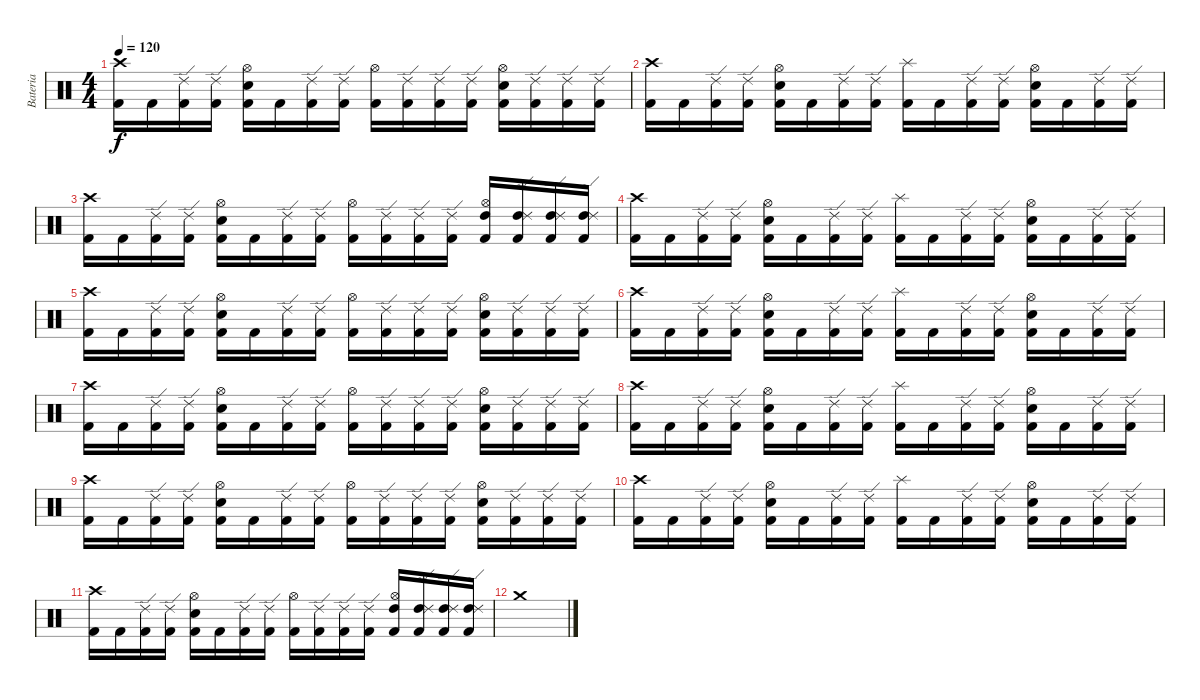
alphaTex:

\track ("Bateria" "Bateria") {instrument percussion}
\staff {score}
\articulation defaults
\ts (4 4)
\tempo 120
\clef neutral
\ks c
("Kick (hit) 2" "Crash high (hit)").16{dy f} "Kick (hit) 2".16 ("Kick (hit) 2" "Ride (edge) 2").16 ("Kick (hit) 2" "Ride (edge) 2").16 ("Kick (hit) 2" "Snare (hit) 2" "Hi-Hat (open)").16 "Kick (hit) 2".16 ("Kick (hit) 2" "Ride (edge) 2").16 ("Kick (hit) 2" "Ride (edge) 2").16 ("Kick (hit) 2" "Hi-Hat (open)").16 ("Kick (hit) 2" "Ride (edge) 2").16 ("Kick (hit) 2" "Ride (edge) 2").16 ("Kick (hit) 2" "Ride (edge) 2").16 ("Kick (hit) 2" "Snare (hit) 2" "Hi-Hat (open)").16 ("Kick (hit) 2" "Ride (edge) 2").16 ("Kick (hit) 2" "Ride (edge) 2").16 ("Kick (hit) 2" "Ride (edge) 2").16 |
("Kick (hit) 2" "Crash high (hit)").16 "Kick (hit) 2".16 ("Kick (hit) 2" "Ride (edge) 2").16 ("Kick (hit) 2" "Ride (edge) 2").16 ("Kick (hit) 2" "Snare (hit) 2" "Hi-Hat (open)").16 "Kick (hit) 2".16 ("Kick (hit) 2" "Ride (edge) 2").16 ("Kick (hit) 2" "Ride (edge) 2").16 ("Kick (hit) 2" "Splash (hit)").16 "Kick (hit) 2".16 ("Kick (hit) 2" "Ride (edge) 2").16 ("Kick (hit) 2" "Ride (edge) 2").16 ("Kick (hit) 2" "Snare (hit) 2" "Hi-Hat (open)").16 "Kick (hit) 2".16 ("Kick (hit) 2" "Ride (edge) 2").16 ("Kick (hit) 2" "Ride (edge) 2").16 |
("Kick (hit) 2" "Crash high (hit)").16 "Kick (hit) 2".16 ("Kick (hit) 2" "Ride (edge) 2").16 ("Kick (hit) 2" "Ride (edge) 2").16 ("Kick (hit) 2" "Snare (hit) 2" "Hi-Hat (open)").16 "Kick (hit) 2".16 ("Kick (hit) 2" "Ride (edge) 2").16 ("Kick (hit) 2" "Ride (edge) 2").16 ("Kick (hit) 2" "Hi-Hat (open)").16 ("Kick (hit) 2" "Ride (edge) 2").16 ("Kick (hit) 2" "Ride (edge) 2").16 ("Kick (hit) 2" "Ride (edge) 2").16 ("Kick (hit) 2" "High Tom (hit)" "Hi-Hat (open)").16 ("Kick (hit) 2" "High Tom (hit)" "Ride (edge) 2").16 ("Kick (hit) 2" "High Tom (hit)" "Ride (edge) 2").16 ("Kick (hit) 2" "High Tom (hit)" "Ride (edge) 2").16 |
("Kick (hit) 2" "Crash high (hit)").16 "Kick (hit) 2".16 ("Kick (hit) 2" "Ride (edge) 2").16 ("Kick (hit) 2" "Ride (edge) 2").16 ("Kick (hit) 2" "Snare (hit) 2" "Hi-Hat (open)").16 "Kick (hit) 2".16 ("Kick (hit) 2" "Ride (edge) 2").16 ("Kick (hit) 2" "Ride (edge) 2").16 ("Kick (hit) 2" "Splash (hit)").16 "Kick (hit) 2".16 ("Kick (hit) 2" "Ride (edge) 2").16 ("Kick (hit) 2" "Ride (edge) 2").16 ("Kick (hit) 2" "Snare (hit) 2" "Hi-Hat (open)").16 "Kick (hit) 2".16 ("Kick (hit) 2" "Ride (edge) 2").16 ("Kick (hit) 2" "Ride (edge) 2").16 |
("Kick (hit) 2" "Crash high (hit)").16 "Kick (hit) 2".16 ("Kick (hit) 2" "Ride (edge) 2").16 ("Kick (hit) 2" "Ride (edge) 2").16 ("Kick (hit) 2" "Snare (hit) 2" "Hi-Hat (open)").16 "Kick (hit) 2".16 ("Kick (hit) 2" "Ride (edge) 2").16 ("Kick (hit) 2" "Ride (edge) 2").16 ("Kick (hit) 2" "Hi-Hat (open)").16 ("Kick (hit) 2" "Ride (edge) 2").16 ("Kick (hit) 2" "Ride (edge) 2").16 ("Kick (hit) 2" "Ride (edge) 2").16 ("Kick (hit) 2" "Snare (hit) 2" "Hi-Hat (open)").16 ("Kick (hit) 2" "Ride (edge) 2").16 ("Kick (hit) 2" "Ride (edge) 2").16 ("Kick (hit) 2" "Ride (edge) 2").16 |
("Kick (hit) 2" "Crash high (hit)").16 "Kick (hit) 2".16 ("Kick (hit) 2" "Ride (edge) 2").16 ("Kick (hit) 2" "Ride (edge) 2").16 ("Kick (hit) 2" "Snare (hit) 2" "Hi-Hat (open)").16 "Kick (hit) 2".16 ("Kick (hit) 2" "Ride (edge) 2").16 ("Kick (hit) 2" "Ride (edge) 2").16 ("Kick (hit) 2" "Splash (hit)").16 "Kick (hit) 2".16 ("Kick (hit) 2" "Ride (edge) 2").16 ("Kick (hit) 2" "Ride (edge) 2").16 ("Kick (hit) 2" "Snare (hit) 2" "Hi-Hat (open)").16 "Kick (hit) 2".16 ("Kick (hit) 2" "Ride (edge) 2").16 ("Kick (hit) 2" "Ride (edge) 2").16 |
("Kick (hit) 2" "Crash high (hit)").16 "Kick (hit) 2".16 ("Kick (hit) 2" "Ride (edge) 2").16 ("Kick (hit) 2" "Ride (edge) 2").16 ("Kick (hit) 2" "Snare (hit) 2" "Hi-Hat (open)").16 "Kick (hit) 2".16 ("Kick (hit) 2" "Ride (edge) 2").16 ("Kick (hit) 2" "Ride (edge) 2").16 ("Kick (hit) 2" "Hi-Hat (open)").16 ("Kick (hit) 2" "Ride (edge) 2").16 ("Kick (hit) 2" "Ride (edge) 2").16 ("Kick (hit) 2" "Ride (edge) 2").16 ("Kick (hit) 2" "Snare (hit) 2" "Hi-Hat (open)").16 ("Kick (hit) 2" "Ride (edge) 2").16 ("Kick (hit) 2" "Ride (edge) 2").16 ("Kick (hit) 2" "Ride (edge) 2").16 |
("Kick (hit) 2" "Crash high (hit)").16 "Kick (hit) 2".16 ("Kick (hit) 2" "Ride (edge) 2").16 ("Kick (hit) 2" "Ride (edge) 2").16 ("Kick (hit) 2" "Snare (hit) 2" "Hi-Hat (open)").16 "Kick (hit) 2".16 ("Kick (hit) 2" "Ride (edge) 2").16 ("Kick (hit) 2" "Ride (edge) 2").16 ("Kick (hit) 2" "Splash (hit)").16 "Kick (hit) 2".16 ("Kick (hit) 2" "Ride (edge) 2").16 ("Kick (hit) 2" "Ride (edge) 2").16 ("Kick (hit) 2" "Snare (hit) 2" "Hi-Hat (open)").16 "Kick (hit) 2".16 ("Kick (hit) 2" "Ride (edge) 2").16 ("Kick (hit) 2" "Ride (edge) 2").16 |
("Kick (hit) 2" "Crash high (hit)").16 "Kick (hit) 2".16 ("Kick (hit) 2" "Ride (edge) 2").16 ("Kick (hit) 2" "Ride (edge) 2").16 ("Kick (hit) 2" "Snare (hit) 2" "Hi-Hat (open)").16 "Kick (hit) 2".16 ("Kick (hit) 2" "Ride (edge) 2").16 ("Kick (hit) 2" "Ride (edge) 2").16 ("Kick (hit) 2" "Hi-Hat (open)").16 ("Kick (hit) 2" "Ride (edge) 2").16 ("Kick (hit) 2" "Ride (edge) 2").16 ("Kick (hit) 2" "Ride (edge) 2").16 ("Kick (hit) 2" "Snare (hit) 2" "Hi-Hat (open)").16 ("Kick (hit) 2" "Ride (edge) 2").16 ("Kick (hit) 2" "Ride (edge) 2").16 ("Kick (hit) 2" "Ride (edge) 2").16 |
("Kick (hit) 2" "Crash high (hit)").16 "Kick (hit) 2".16 ("Kick (hit) 2" "Ride (edge) 2").16 ("Kick (hit) 2" "Ride (edge) 2").16 ("Kick (hit) 2" "Snare (hit) 2" "Hi-Hat (open)").16 "Kick (hit) 2".16 ("Kick (hit) 2" "Ride (edge) 2").16 ("Kick (hit) 2" "Ride (edge) 2").16 ("Kick (hit) 2" "Splash (hit)").16 "Kick (hit) 2".16 ("Kick (hit) 2" "Ride (edge) 2").16 ("Kick (hit) 2" "Ride (edge) 2").16 ("Kick (hit) 2" "Snare (hit) 2" "Hi-Hat (open)").16 "Kick (hit) 2".16 ("Kick (hit) 2" "Ride (edge) 2").16 ("Kick (hit) 2" "Ride (edge) 2").16 |
("Kick (hit) 2" "Crash high (hit)").16 "Kick (hit) 2".16 ("Kick (hit) 2" "Ride (edge) 2").16 ("Kick (hit) 2" "Ride (edge) 2").16 ("Kick (hit) 2" "Snare (hit) 2" "Hi-Hat (open)").16 "Kick (hit) 2".16 ("Kick (hit) 2" "Ride (edge) 2").16 ("Kick (hit) 2" "Ride (edge) 2").16 ("Kick (hit) 2" "Hi-Hat (open)").16 ("Kick (hit) 2" "Ride (edge) 2").16 ("Kick (hit) 2" "Ride (edge) 2").16 ("Kick (hit) 2" "Ride (edge) 2").16 ("Kick (hit) 2" "High Tom (hit)" "Hi-Hat (open)").16 ("Kick (hit) 2" "High Tom (hit)" "Ride (edge) 2").16 ("Kick (hit) 2" "High Tom (hit)" "Ride (edge) 2").16 ("Kick (hit) 2" "High Tom (hit)" "Ride (edge) 2").16 |
"Crash medium (hit)".1
